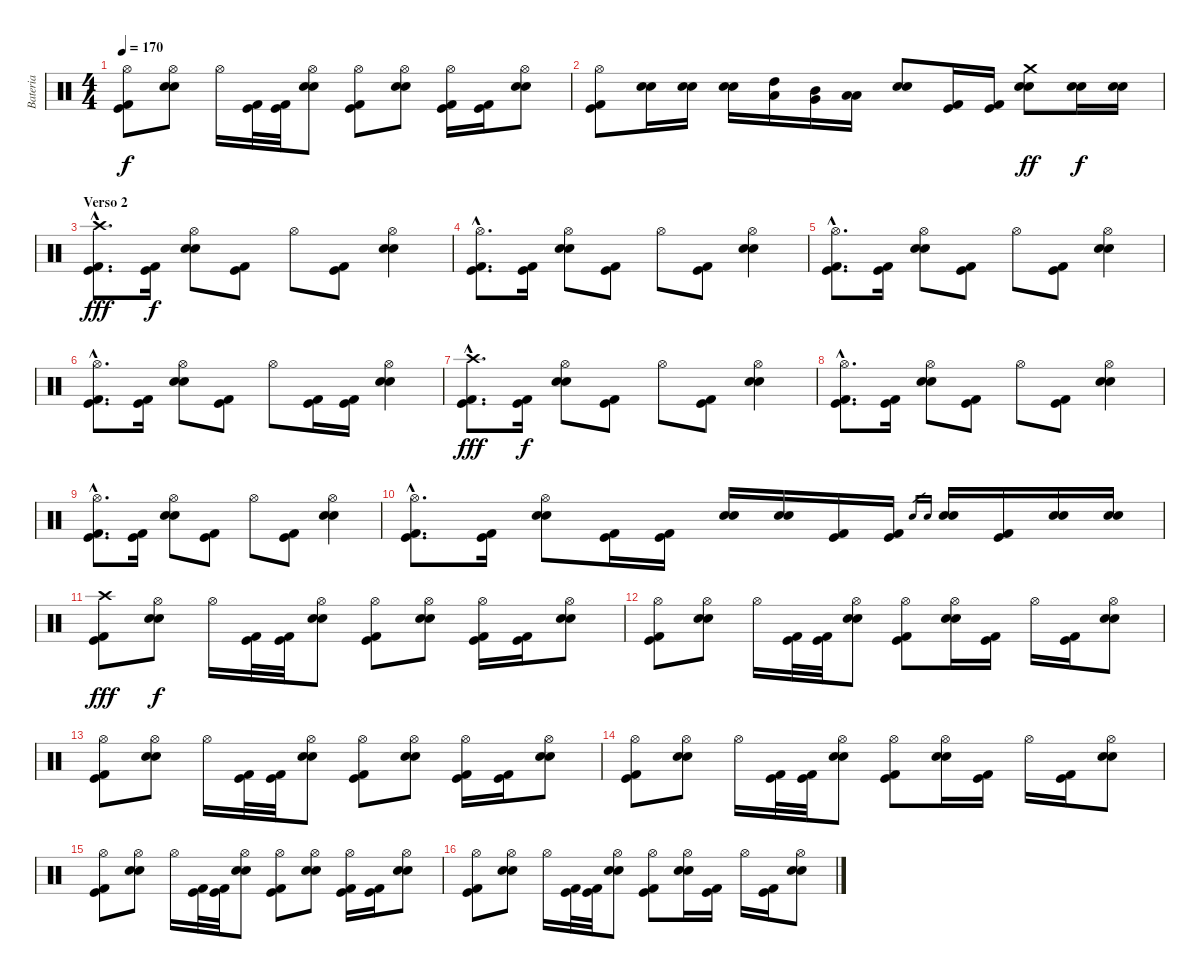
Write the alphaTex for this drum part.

\track ("Bateria" "Bateria") {instrument percussion}
\staff {score}
\articulation defaults
\ts (4 4)
\tempo 170
\clef neutral
\ks c
("Hi-Hat (open)" "Kick (hit) 2" "Kick (hit)").8{dy f} ("Hi-Hat (open)" "Electric Snare (hit)" "Snare (hit) 2").8 "Hi-Hat (open)".16 ("Kick (hit) 2" "Kick (hit)").32 ("Kick (hit) 2" "Kick (hit)").32 ("Hi-Hat (open)" "Electric Snare (hit)" "Snare (hit) 2").8 ("Hi-Hat (open)" "Kick (hit) 2" "Kick (hit)").8 ("Hi-Hat (open)" "Electric Snare (hit)" "Snare (hit) 2").8 ("Hi-Hat (open)" "Kick (hit) 2" "Kick (hit)").16 ("Kick (hit) 2" "Kick (hit)").16 ("Hi-Hat (open)" "Electric Snare (hit)" "Snare (hit) 2").8 |
("Hi-Hat (open)" "Kick (hit) 2" "Kick (hit)").8 ("Electric Snare (hit)" "Snare (hit) 2").16 ("Electric Snare (hit)" "Snare (hit) 2").16 ("Electric Snare (hit)" "Snare (hit) 2").16 ("High Tom (hit)" "Low Tom (hit)").16 ("Mid Tom (hit)" "Very Low Tom (hit)").16 ("Low Tom (hit)" "Low Floor Tom (hit)").16 ("Electric Snare (hit)" "Snare (hit) 2").8 ("Kick (hit) 2" "Kick (hit)").16 ("Kick (hit) 2" "Kick (hit)").16 ("Crash medium (hit)" "Electric Snare (hit)" "Snare (hit) 2").8{dy ff} ("Electric Snare (hit)" "Snare (hit) 2").16{dy f} ("Electric Snare (hit)" "Snare (hit) 2").16 |
\section ("" "Verso 2")
("Crash high (hit)"{hac} "Kick (hit) 2"{hac} "Kick (hit)"{hac}).8{d dy fff} ("Kick (hit) 2" "Kick (hit)").16{dy f} ("Hi-Hat (open)" "Electric Snare (hit)" "Snare (hit) 2").8 ("Kick (hit) 2" "Kick (hit)").8 "Hi-Hat (open)".8 ("Kick (hit) 2" "Kick (hit)").8 ("Hi-Hat (open)" "Electric Snare (hit)" "Snare (hit) 2").4 |
("Hi-Hat (open)"{hac} "Kick (hit) 2"{hac} "Kick (hit)"{hac}).8{d} ("Kick (hit) 2" "Kick (hit)").16 ("Hi-Hat (open)" "Electric Snare (hit)" "Snare (hit) 2").8 ("Kick (hit) 2" "Kick (hit)").8 "Hi-Hat (open)".8 ("Kick (hit) 2" "Kick (hit)").8 ("Hi-Hat (open)" "Electric Snare (hit)" "Snare (hit) 2").4 |
("Hi-Hat (open)"{hac} "Kick (hit) 2"{hac} "Kick (hit)"{hac}).8{d} ("Kick (hit) 2" "Kick (hit)").16 ("Hi-Hat (open)" "Electric Snare (hit)" "Snare (hit) 2").8 ("Kick (hit) 2" "Kick (hit)").8 "Hi-Hat (open)".8 ("Kick (hit) 2" "Kick (hit)").8 ("Hi-Hat (open)" "Electric Snare (hit)" "Snare (hit) 2").4 |
("Hi-Hat (open)"{hac} "Kick (hit) 2"{hac} "Kick (hit)"{hac}).8{d} ("Kick (hit) 2" "Kick (hit)").16 ("Hi-Hat (open)" "Electric Snare (hit)" "Snare (hit) 2").8 ("Kick (hit) 2" "Kick (hit)").8 "Hi-Hat (open)".8 ("Kick (hit) 2" "Kick (hit)").16 ("Kick (hit) 2" "Kick (hit)").16 ("Hi-Hat (open)" "Electric Snare (hit)" "Snare (hit) 2").4 |
("Crash high (hit)"{hac} "Kick (hit) 2"{hac} "Kick (hit)"{hac}).8{d dy fff} ("Kick (hit) 2" "Kick (hit)").16{dy f} ("Hi-Hat (open)" "Electric Snare (hit)" "Snare (hit) 2").8 ("Kick (hit) 2" "Kick (hit)").8 "Hi-Hat (open)".8 ("Kick (hit) 2" "Kick (hit)").8 ("Hi-Hat (open)" "Electric Snare (hit)" "Snare (hit) 2").4 |
("Hi-Hat (open)"{hac} "Kick (hit) 2"{hac} "Kick (hit)"{hac}).8{d} ("Kick (hit) 2" "Kick (hit)").16 ("Hi-Hat (open)" "Electric Snare (hit)" "Snare (hit) 2").8 ("Kick (hit) 2" "Kick (hit)").8 "Hi-Hat (open)".8 ("Kick (hit) 2" "Kick (hit)").8 ("Hi-Hat (open)" "Electric Snare (hit)" "Snare (hit) 2").4 |
("Hi-Hat (open)"{hac} "Kick (hit) 2"{hac} "Kick (hit)"{hac}).8{d} ("Kick (hit) 2" "Kick (hit)").16 ("Hi-Hat (open)" "Electric Snare (hit)" "Snare (hit) 2").8 ("Kick (hit) 2" "Kick (hit)").8 "Hi-Hat (open)".8 ("Kick (hit) 2" "Kick (hit)").8 ("Hi-Hat (open)" "Electric Snare (hit)" "Snare (hit) 2").4 |
("Hi-Hat (open)"{hac} "Kick (hit) 2"{hac} "Kick (hit)"{hac}).8{d} ("Kick (hit) 2" "Kick (hit)").16 ("Hi-Hat (open)" "Electric Snare (hit)" "Snare (hit) 2").8 ("Kick (hit) 2" "Kick (hit)").16 ("Kick (hit) 2" "Kick (hit)").16 ("Electric Snare (hit)" "Snare (hit) 2").16 ("Electric Snare (hit)" "Snare (hit) 2").16 ("Kick (hit) 2" "Kick (hit)").16 ("Kick (hit) 2" "Kick (hit)").16 "Electric Snare (hit)".16{gr} "Snare (hit) 2".16{gr} ("Electric Snare (hit)" "Snare (hit) 2").16 ("Kick (hit) 2" "Kick (hit)").16 ("Electric Snare (hit)" "Snare (hit) 2").16 ("Electric Snare (hit)" "Snare (hit) 2").16 |
("Crash high (hit)" "Kick (hit) 2" "Kick (hit)").8{dy fff} ("Hi-Hat (open)" "Electric Snare (hit)" "Snare (hit) 2").8{dy f} "Hi-Hat (open)".16 ("Kick (hit) 2" "Kick (hit)").32 ("Kick (hit) 2" "Kick (hit)").32 ("Hi-Hat (open)" "Electric Snare (hit)" "Snare (hit) 2").8 ("Hi-Hat (open)" "Kick (hit) 2" "Kick (hit)").8 ("Hi-Hat (open)" "Electric Snare (hit)" "Snare (hit) 2").8 ("Hi-Hat (open)" "Kick (hit) 2" "Kick (hit)").16 ("Kick (hit) 2" "Kick (hit)").16 ("Hi-Hat (open)" "Electric Snare (hit)" "Snare (hit) 2").8 |
("Hi-Hat (open)" "Kick (hit) 2" "Kick (hit)").8 ("Hi-Hat (open)" "Electric Snare (hit)" "Snare (hit) 2").8 "Hi-Hat (open)".16 ("Kick (hit) 2" "Kick (hit)").32 ("Kick (hit) 2" "Kick (hit)").32 ("Hi-Hat (open)" "Electric Snare (hit)" "Snare (hit) 2").8 ("Hi-Hat (open)" "Kick (hit) 2" "Kick (hit)").8 ("Hi-Hat (open)" "Electric Snare (hit)" "Snare (hit) 2").16 ("Kick (hit) 2" "Kick (hit)").16 "Hi-Hat (open)".16 ("Kick (hit) 2" "Kick (hit)").16 ("Hi-Hat (open)" "Electric Snare (hit)" "Snare (hit) 2").8 |
("Hi-Hat (open)" "Kick (hit) 2" "Kick (hit)").8 ("Hi-Hat (open)" "Electric Snare (hit)" "Snare (hit) 2").8 "Hi-Hat (open)".16 ("Kick (hit) 2" "Kick (hit)").32 ("Kick (hit) 2" "Kick (hit)").32 ("Hi-Hat (open)" "Electric Snare (hit)" "Snare (hit) 2").8 ("Hi-Hat (open)" "Kick (hit) 2" "Kick (hit)").8 ("Hi-Hat (open)" "Electric Snare (hit)" "Snare (hit) 2").8 ("Hi-Hat (open)" "Kick (hit) 2" "Kick (hit)").16 ("Kick (hit) 2" "Kick (hit)").16 ("Hi-Hat (open)" "Electric Snare (hit)" "Snare (hit) 2").8 |
("Hi-Hat (open)" "Kick (hit) 2" "Kick (hit)").8 ("Hi-Hat (open)" "Electric Snare (hit)" "Snare (hit) 2").8 "Hi-Hat (open)".16 ("Kick (hit) 2" "Kick (hit)").32 ("Kick (hit) 2" "Kick (hit)").32 ("Hi-Hat (open)" "Electric Snare (hit)" "Snare (hit) 2").8 ("Hi-Hat (open)" "Kick (hit) 2" "Kick (hit)").8 ("Hi-Hat (open)" "Electric Snare (hit)" "Snare (hit) 2").16 ("Kick (hit) 2" "Kick (hit)").16 "Hi-Hat (open)".16 ("Kick (hit) 2" "Kick (hit)").16 ("Hi-Hat (open)" "Electric Snare (hit)" "Snare (hit) 2").8 |
("Hi-Hat (open)" "Kick (hit) 2" "Kick (hit)").8 ("Hi-Hat (open)" "Electric Snare (hit)" "Snare (hit) 2").8 "Hi-Hat (open)".16 ("Kick (hit) 2" "Kick (hit)").32 ("Kick (hit) 2" "Kick (hit)").32 ("Hi-Hat (open)" "Electric Snare (hit)" "Snare (hit) 2").8 ("Hi-Hat (open)" "Kick (hit) 2" "Kick (hit)").8 ("Hi-Hat (open)" "Electric Snare (hit)" "Snare (hit) 2").8 ("Hi-Hat (open)" "Kick (hit) 2" "Kick (hit)").16 ("Kick (hit) 2" "Kick (hit)").16 ("Hi-Hat (open)" "Electric Snare (hit)" "Snare (hit) 2").8 |
("Hi-Hat (open)" "Kick (hit) 2" "Kick (hit)").8 ("Hi-Hat (open)" "Electric Snare (hit)" "Snare (hit) 2").8 "Hi-Hat (open)".16 ("Kick (hit) 2" "Kick (hit)").32 ("Kick (hit) 2" "Kick (hit)").32 ("Hi-Hat (open)" "Electric Snare (hit)" "Snare (hit) 2").8 ("Hi-Hat (open)" "Kick (hit) 2" "Kick (hit)").8 ("Hi-Hat (open)" "Electric Snare (hit)" "Snare (hit) 2").16 ("Kick (hit) 2" "Kick (hit)").16 "Hi-Hat (open)".16 ("Kick (hit) 2" "Kick (hit)").16 ("Hi-Hat (open)" "Electric Snare (hit)" "Snare (hit) 2").8
